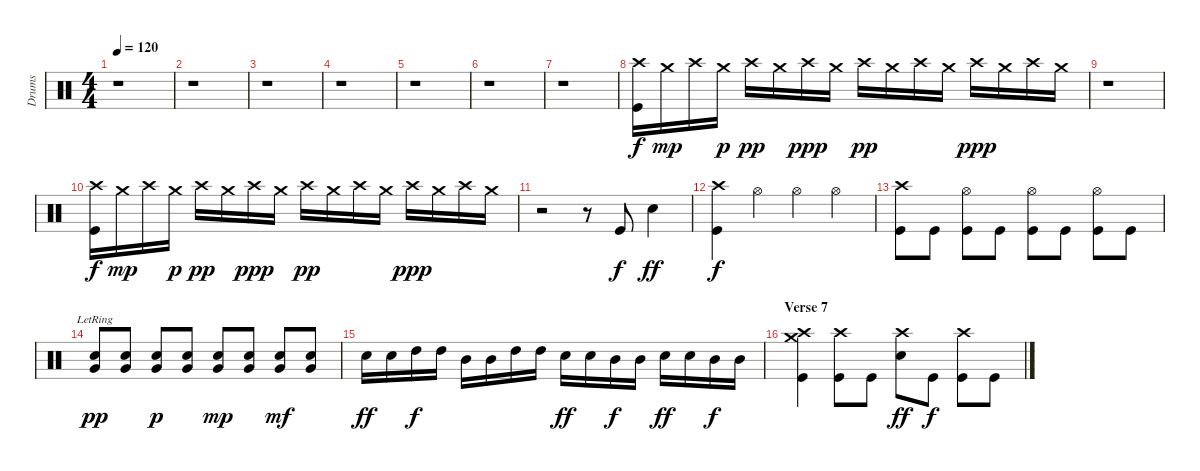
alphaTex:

\track ("Drums" "Drums") {instrument percussion}
\staff {score}
\articulation defaults
\ts (4 4)
\tempo 120
\clef neutral
\ks c
r.1{dy ppp} |
r.1 |
r.1 |
r.1 |
r.1 |
r.1 |
r.1 |
("Crash high (hit)" "Kick (hit)").16{dy f} "Crash medium (hit)".16{dy mp} "Crash high (hit)".16 "Crash medium (hit)".16{dy p} "Crash high (hit)".16{dy pp} "Crash medium (hit)".16 "Crash high (hit)".16{dy ppp} "Crash medium (hit)".16 "Crash high (hit)".16{dy pp} "Crash medium (hit)".16 "Crash high (hit)".16 "Crash medium (hit)".16 "Crash high (hit)".16{dy ppp} "Crash medium (hit)".16 "Crash high (hit)".16 "Crash medium (hit)".16 |
r.1 |
("Crash high (hit)" "Kick (hit)").16{dy f} "Crash medium (hit)".16{dy mp} "Crash high (hit)".16 "Crash medium (hit)".16{dy p} "Crash high (hit)".16{dy pp} "Crash medium (hit)".16 "Crash high (hit)".16{dy ppp} "Crash medium (hit)".16 "Crash high (hit)".16{dy pp} "Crash medium (hit)".16 "Crash high (hit)".16 "Crash medium (hit)".16 "Crash high (hit)".16{dy ppp} "Crash medium (hit)".16 "Crash high (hit)".16 "Crash medium (hit)".16 |
r.2 r.8 "Kick (hit)".8{dy f} "Electric Snare (hit)".4{dy ff} |
("Crash high (hit)" "Kick (hit)").4{dy f} "Hi-Hat (open)".4 "Hi-Hat (open)".4 "Hi-Hat (open)".4 |
("Crash high (hit)" "Kick (hit)").8 "Kick (hit)".8 ("Hi-Hat (open)" "Kick (hit)").8 "Kick (hit)".8 ("Hi-Hat (open)" "Kick (hit)").8 "Kick (hit)".8 ("Hi-Hat (open)" "Kick (hit)").8 "Kick (hit)".8 |
("Very Low Tom (hit)" "Electric Snare (hit)"{lr}).8{dy pp} ("Very Low Tom (hit)" "Electric Snare (hit)").8 ("Very Low Tom (hit)" "Electric Snare (hit)").8{dy p} ("Very Low Tom (hit)" "Electric Snare (hit)").8 ("Very Low Tom (hit)" "Electric Snare (hit)").8{dy mp} ("Very Low Tom (hit)" "Electric Snare (hit)").8 ("Very Low Tom (hit)" "Electric Snare (hit)").8{dy mf} ("Very Low Tom (hit)" "Electric Snare (hit)").8 |
"Electric Snare (hit)".16{dy ff} "Electric Snare (hit)".16 "High Tom (hit)".16{dy f} "High Tom (hit)".16 "Mid Tom (hit)".16 "Mid Tom (hit)".16 "High Tom (hit)".16 "High Tom (hit)".16 "Electric Snare (hit)".16{dy ff} "Electric Snare (hit)".16 "Mid Tom (hit)".16{dy f} "Mid Tom (hit)".16 "Electric Snare (hit)".16{dy ff} "Electric Snare (hit)".16 "Mid Tom (hit)".16{dy f} "Mid Tom (hit)".16 |
\section ("" "Verse 7")
("Crash high (hit)" "Crash medium (hit)" "Kick (hit)").4 ("Crash high (hit)" "Kick (hit)").8 "Kick (hit)".8 ("Crash high (hit)" "Electric Snare (hit)").8{dy ff} "Kick (hit)".8{dy f} ("Crash high (hit)" "Kick (hit)").8 "Kick (hit)".8
